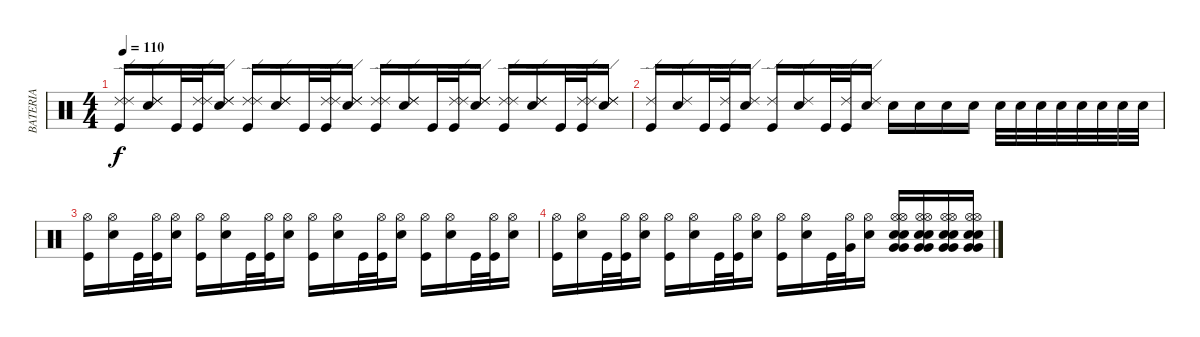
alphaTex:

\track ("BATERIA" "BATERIA") {instrument percussion}
\staff {score}
\articulation defaults
\ts (4 4)
\tempo 110
\clef neutral
\ks c
("Kick (hit)" "Ride (edge) 2" "Ride (edge) 2").16{dy f} ("Snare (hit) 2" "Ride (edge) 2" "Ride (edge) 2").16 "Kick (hit)".32 ("Kick (hit)" "Ride (edge) 2" "Ride (edge) 2").32 ("Snare (hit) 2" "Ride (edge) 2" "Ride (edge) 2").16 ("Kick (hit)" "Ride (edge) 2" "Ride (edge) 2").16 ("Snare (hit) 2" "Ride (edge) 2" "Ride (edge) 2").16 "Kick (hit)".32 ("Kick (hit)" "Ride (edge) 2" "Ride (edge) 2").32 ("Snare (hit) 2" "Ride (edge) 2" "Ride (edge) 2").16 ("Kick (hit)" "Ride (edge) 2" "Ride (edge) 2").16 ("Snare (hit) 2" "Ride (edge) 2" "Ride (edge) 2").16 "Kick (hit)".32 ("Kick (hit)" "Ride (edge) 2" "Ride (edge) 2").32 ("Snare (hit) 2" "Ride (edge) 2" "Ride (edge) 2").16 ("Kick (hit)" "Ride (edge) 2" "Ride (edge) 2").16 ("Snare (hit) 2" "Ride (edge) 2" "Ride (edge) 2").16 "Kick (hit)".32 ("Kick (hit)" "Ride (edge) 2" "Ride (edge) 2").32 ("Snare (hit) 2" "Ride (edge) 2" "Ride (edge) 2").16 |
("Kick (hit)" "Ride (edge) 2").16 ("Snare (hit) 2" "Ride (edge) 2").16 "Kick (hit)".32 ("Kick (hit)" "Ride (edge) 2").32 ("Snare (hit) 2" "Ride (edge) 2").16 ("Kick (hit)" "Ride (edge) 2").16 ("Snare (hit) 2" "Ride (edge) 2").16 "Kick (hit)".32 ("Kick (hit)" "Ride (edge) 2").32 ("Snare (hit) 2" "Ride (edge) 2").16 "Snare (hit) 2".16 "Snare (hit) 2".16 "Snare (hit) 2".16 "Snare (hit) 2".16 "Snare (hit) 2".32 "Snare (hit) 2".32 "Snare (hit) 2".32 "Snare (hit) 2".32 "Snare (hit) 2".32 "Snare (hit) 2".32 "Snare (hit) 2".32 "Snare (hit) 2".32 |
("Kick (hit)" "Hi-Hat (open)").16 ("Snare (hit) 2" "Hi-Hat (open)").16 "Kick (hit)".32 ("Kick (hit)" "Hi-Hat (open)").32 ("Snare (hit) 2" "Hi-Hat (open)").16 ("Kick (hit)" "Hi-Hat (open)").16 ("Snare (hit) 2" "Hi-Hat (open)").16 "Kick (hit)".32 ("Kick (hit)" "Hi-Hat (open)").32 ("Snare (hit) 2" "Hi-Hat (open)").16 ("Kick (hit)" "Hi-Hat (open)").16 ("Snare (hit) 2" "Hi-Hat (open)").16 "Kick (hit)".32 ("Kick (hit)" "Hi-Hat (open)").32 ("Snare (hit) 2" "Hi-Hat (open)").16 ("Kick (hit)" "Hi-Hat (open)").16 ("Snare (hit) 2" "Hi-Hat (open)").16 "Kick (hit)".32 ("Kick (hit)" "Hi-Hat (open)").32 ("Snare (hit) 2" "Hi-Hat (open)").16 |
("Kick (hit)" "Hi-Hat (open)").16 ("Snare (hit) 2" "Hi-Hat (open)").16 "Kick (hit)".32 ("Kick (hit)" "Hi-Hat (open)").32 ("Snare (hit) 2" "Hi-Hat (open)").16 ("Kick (hit)" "Hi-Hat (open)").16 ("Snare (hit) 2" "Hi-Hat (open)").16 "Kick (hit)".32 ("Kick (hit)" "Hi-Hat (open)").32 ("Snare (hit) 2" "Hi-Hat (open)").16 ("Kick (hit)" "Hi-Hat (open)").16 ("Snare (hit) 2" "Hi-Hat (open)").16 "Kick (hit)".32 ("Very Low Tom (hit)" "Hi-Hat (open)").32 ("Snare (hit) 2" "Hi-Hat (open)").16 ("Snare (hit) 2" "Snare (hit) 2" "Very Low Tom (hit)" "Very Low Tom (hit)" "Hi-Hat (open)" "Hi-Hat (open)").16 ("Snare (hit) 2" "Snare (hit) 2" "Very Low Tom (hit)" "Very Low Tom (hit)" "Hi-Hat (open)" "Hi-Hat (open)").16 ("Snare (hit) 2" "Snare (hit) 2" "Very Low Tom (hit)" "Very Low Tom (hit)" "Hi-Hat (open)" "Hi-Hat (open)").16 ("Snare (hit) 2" "Snare (hit) 2" "Very Low Tom (hit)" "Very Low Tom (hit)" "Hi-Hat (open)" "Hi-Hat (open)").16
